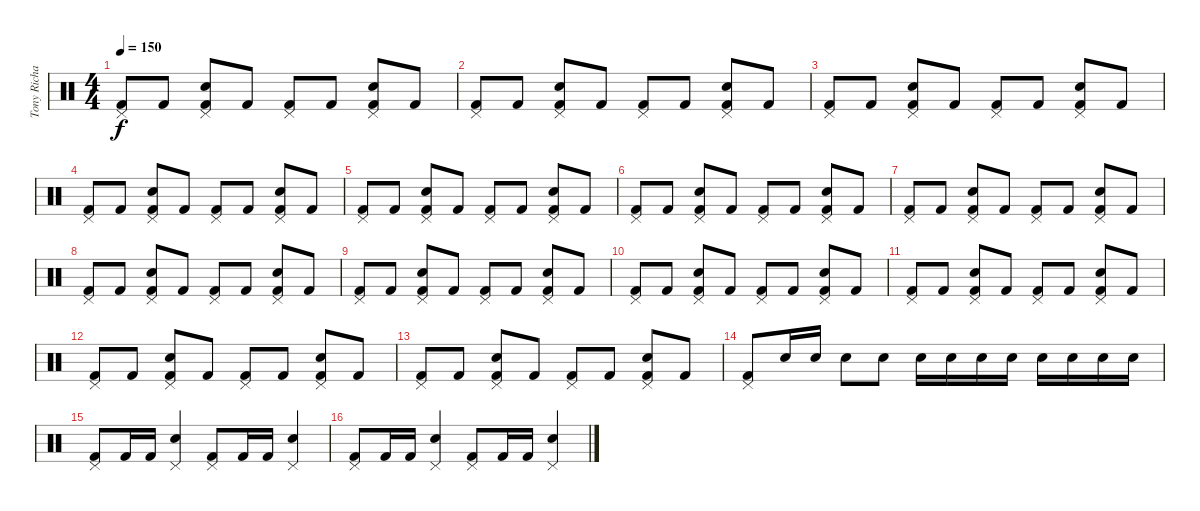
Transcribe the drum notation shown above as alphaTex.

\track ("Tony Richards (drums)" "Tony Richa") {instrument percussion}
\staff {score}
\articulation defaults
\ts (4 4)
\tempo 150
\clef neutral
\ks c
("Pedal Hi-Hat (hit)" "Kick (hit) 2").8{dy f} "Kick (hit) 2".8 ("Pedal Hi-Hat (hit)" "Snare (hit) 2" "Kick (hit) 2").8 "Kick (hit) 2".8 ("Pedal Hi-Hat (hit)" "Kick (hit) 2").8 "Kick (hit) 2".8 ("Pedal Hi-Hat (hit)" "Snare (hit) 2" "Kick (hit) 2").8 "Kick (hit) 2".8 |
("Pedal Hi-Hat (hit)" "Kick (hit) 2").8 "Kick (hit) 2".8 ("Pedal Hi-Hat (hit)" "Snare (hit) 2" "Kick (hit) 2").8 "Kick (hit) 2".8 ("Pedal Hi-Hat (hit)" "Kick (hit) 2").8 "Kick (hit) 2".8 ("Pedal Hi-Hat (hit)" "Snare (hit) 2" "Kick (hit) 2").8 "Kick (hit) 2".8 |
("Pedal Hi-Hat (hit)" "Kick (hit) 2").8 "Kick (hit) 2".8 ("Pedal Hi-Hat (hit)" "Snare (hit) 2" "Kick (hit) 2").8 "Kick (hit) 2".8 ("Pedal Hi-Hat (hit)" "Kick (hit) 2").8 "Kick (hit) 2".8 ("Pedal Hi-Hat (hit)" "Snare (hit) 2" "Kick (hit) 2").8 "Kick (hit) 2".8 |
("Pedal Hi-Hat (hit)" "Kick (hit) 2").8 "Kick (hit) 2".8 ("Pedal Hi-Hat (hit)" "Snare (hit) 2" "Kick (hit) 2").8 "Kick (hit) 2".8 ("Pedal Hi-Hat (hit)" "Kick (hit) 2").8 "Kick (hit) 2".8 ("Pedal Hi-Hat (hit)" "Snare (hit) 2" "Kick (hit) 2").8 "Kick (hit) 2".8 |
("Pedal Hi-Hat (hit)" "Kick (hit) 2").8 "Kick (hit) 2".8 ("Pedal Hi-Hat (hit)" "Snare (hit) 2" "Kick (hit) 2").8 "Kick (hit) 2".8 ("Pedal Hi-Hat (hit)" "Kick (hit) 2").8 "Kick (hit) 2".8 ("Pedal Hi-Hat (hit)" "Snare (hit) 2" "Kick (hit) 2").8 "Kick (hit) 2".8 |
("Pedal Hi-Hat (hit)" "Kick (hit) 2").8 "Kick (hit) 2".8 ("Pedal Hi-Hat (hit)" "Snare (hit) 2" "Kick (hit) 2").8 "Kick (hit) 2".8 ("Pedal Hi-Hat (hit)" "Kick (hit) 2").8 "Kick (hit) 2".8 ("Pedal Hi-Hat (hit)" "Snare (hit) 2" "Kick (hit) 2").8 "Kick (hit) 2".8 |
("Pedal Hi-Hat (hit)" "Kick (hit) 2").8 "Kick (hit) 2".8 ("Pedal Hi-Hat (hit)" "Snare (hit) 2" "Kick (hit) 2").8 "Kick (hit) 2".8 ("Pedal Hi-Hat (hit)" "Kick (hit) 2").8 "Kick (hit) 2".8 ("Pedal Hi-Hat (hit)" "Snare (hit) 2" "Kick (hit) 2").8 "Kick (hit) 2".8 |
("Pedal Hi-Hat (hit)" "Kick (hit) 2").8 "Kick (hit) 2".8 ("Pedal Hi-Hat (hit)" "Snare (hit) 2" "Kick (hit) 2").8 "Kick (hit) 2".8 ("Pedal Hi-Hat (hit)" "Kick (hit) 2").8 "Kick (hit) 2".8 ("Pedal Hi-Hat (hit)" "Snare (hit) 2" "Kick (hit) 2").8 "Kick (hit) 2".8 |
("Pedal Hi-Hat (hit)" "Kick (hit) 2").8 "Kick (hit) 2".8 ("Pedal Hi-Hat (hit)" "Snare (hit) 2" "Kick (hit) 2").8 "Kick (hit) 2".8 ("Pedal Hi-Hat (hit)" "Kick (hit) 2").8 "Kick (hit) 2".8 ("Pedal Hi-Hat (hit)" "Snare (hit) 2" "Kick (hit) 2").8 "Kick (hit) 2".8 |
("Pedal Hi-Hat (hit)" "Kick (hit) 2").8 "Kick (hit) 2".8 ("Pedal Hi-Hat (hit)" "Snare (hit) 2" "Kick (hit) 2").8 "Kick (hit) 2".8 ("Pedal Hi-Hat (hit)" "Kick (hit) 2").8 "Kick (hit) 2".8 ("Pedal Hi-Hat (hit)" "Snare (hit) 2" "Kick (hit) 2").8 "Kick (hit) 2".8 |
("Pedal Hi-Hat (hit)" "Kick (hit) 2").8 "Kick (hit) 2".8 ("Pedal Hi-Hat (hit)" "Snare (hit) 2" "Kick (hit) 2").8 "Kick (hit) 2".8 ("Pedal Hi-Hat (hit)" "Kick (hit) 2").8 "Kick (hit) 2".8 ("Pedal Hi-Hat (hit)" "Snare (hit) 2" "Kick (hit) 2").8 "Kick (hit) 2".8 |
("Pedal Hi-Hat (hit)" "Kick (hit) 2").8 "Kick (hit) 2".8 ("Pedal Hi-Hat (hit)" "Snare (hit) 2" "Kick (hit) 2").8 "Kick (hit) 2".8 ("Pedal Hi-Hat (hit)" "Kick (hit) 2").8 "Kick (hit) 2".8 ("Pedal Hi-Hat (hit)" "Snare (hit) 2" "Kick (hit) 2").8 "Kick (hit) 2".8 |
("Pedal Hi-Hat (hit)" "Kick (hit) 2").8 "Kick (hit) 2".8 ("Pedal Hi-Hat (hit)" "Snare (hit) 2" "Kick (hit) 2").8 "Kick (hit) 2".8 ("Pedal Hi-Hat (hit)" "Kick (hit) 2").8 "Kick (hit) 2".8 ("Pedal Hi-Hat (hit)" "Snare (hit) 2" "Kick (hit) 2").8 "Kick (hit) 2".8 |
("Pedal Hi-Hat (hit)" "Kick (hit) 2").8 "Snare (hit) 2".16 "Snare (hit) 2".16 "Snare (hit) 2".8 "Snare (hit) 2".8 "Snare (hit) 2".16 "Snare (hit) 2".16 "Snare (hit) 2".16 "Snare (hit) 2".16 "Snare (hit) 2".16 "Snare (hit) 2".16 "Snare (hit) 2".16 "Snare (hit) 2".16 |
("Pedal Hi-Hat (hit)" "Kick (hit) 2").8 "Kick (hit) 2".16 "Kick (hit) 2".16 ("Pedal Hi-Hat (hit)" "Snare (hit) 2").4 ("Pedal Hi-Hat (hit)" "Kick (hit) 2").8 "Kick (hit) 2".16 "Kick (hit) 2".16 ("Pedal Hi-Hat (hit)" "Snare (hit) 2").4 |
("Pedal Hi-Hat (hit)" "Kick (hit) 2").8 "Kick (hit) 2".16 "Kick (hit) 2".16 ("Pedal Hi-Hat (hit)" "Snare (hit) 2").4 ("Pedal Hi-Hat (hit)" "Kick (hit) 2").8 "Kick (hit) 2".16 "Kick (hit) 2".16 ("Pedal Hi-Hat (hit)" "Snare (hit) 2").4
